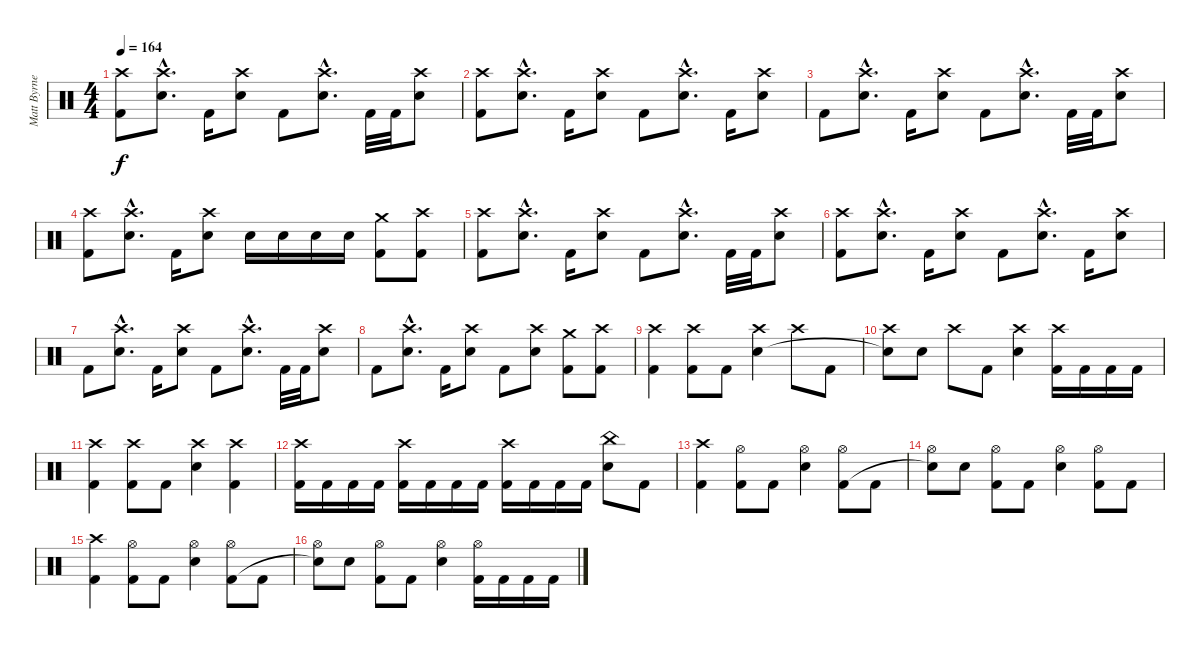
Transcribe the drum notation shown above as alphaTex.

\track ("Matt Byrne (Drums)" "Matt Byrne") {instrument percussion}
\staff {score}
\articulation defaults
\ts (4 4)
\tempo 164
\clef neutral
\ks c
("Crash high (hit)" "Kick (hit) 2").8{dy f} ("Crash high (hit)"{hac} "Snare (hit) 2"{hac}).8{d} "Kick (hit) 2".16 ("Crash high (hit)" "Snare (hit) 2").8 "Kick (hit) 2".8 ("Crash high (hit)"{hac} "Snare (hit) 2"{hac}).8{d} "Kick (hit) 2".32 "Kick (hit) 2".32 ("Crash high (hit)" "Snare (hit) 2").8 |
("Crash high (hit)" "Kick (hit) 2").8 ("Crash high (hit)"{hac} "Snare (hit) 2"{hac}).8{d} "Kick (hit) 2".16 ("Crash high (hit)" "Snare (hit) 2").8 "Kick (hit) 2".8 ("Crash high (hit)"{hac} "Snare (hit) 2"{hac}).8{d} "Kick (hit) 2".16 ("Crash high (hit)" "Snare (hit) 2").8 |
"Kick (hit) 2".8 ("Crash high (hit)"{hac} "Snare (hit) 2"{hac}).8{d} "Kick (hit) 2".16 ("Crash high (hit)" "Snare (hit) 2").8 "Kick (hit) 2".8 ("Crash high (hit)"{hac} "Snare (hit) 2"{hac}).8{d} "Kick (hit) 2".32 "Kick (hit) 2".32 ("Crash high (hit)" "Snare (hit) 2").8 |
("Crash high (hit)" "Kick (hit) 2").8 ("Crash high (hit)"{hac} "Snare (hit) 2"{hac}).8{d} "Kick (hit) 2".16 ("Crash high (hit)" "Snare (hit) 2").8 "Snare (hit) 2".16 "Snare (hit) 2".16 "Snare (hit) 2".16 "Snare (hit) 2".16 ("Crash medium (hit)" "Kick (hit) 2").8 ("Crash high (hit)" "Kick (hit) 2").8 |
("Crash high (hit)" "Kick (hit) 2").8 ("Crash high (hit)"{hac} "Snare (hit) 2"{hac}).8{d} "Kick (hit) 2".16 ("Crash high (hit)" "Snare (hit) 2").8 "Kick (hit) 2".8 ("Crash high (hit)"{hac} "Snare (hit) 2"{hac}).8{d} "Kick (hit) 2".32 "Kick (hit) 2".32 ("Crash high (hit)" "Snare (hit) 2").8 |
("Crash high (hit)" "Kick (hit) 2").8 ("Crash high (hit)"{hac} "Snare (hit) 2"{hac}).8{d} "Kick (hit) 2".16 ("Crash high (hit)" "Snare (hit) 2").8 "Kick (hit) 2".8 ("Crash high (hit)"{hac} "Snare (hit) 2"{hac}).8{d} "Kick (hit) 2".16 ("Crash high (hit)" "Snare (hit) 2").8 |
"Kick (hit) 2".8 ("Crash high (hit)"{hac} "Snare (hit) 2"{hac}).8{d} "Kick (hit) 2".16 ("Crash high (hit)" "Snare (hit) 2").8 "Kick (hit) 2".8 ("Crash high (hit)"{hac} "Snare (hit) 2"{hac}).8{d} "Kick (hit) 2".32 "Kick (hit) 2".32 ("Crash high (hit)" "Snare (hit) 2").8 |
"Kick (hit) 2".8 ("Crash high (hit)"{hac} "Snare (hit) 2"{hac}).8{d} "Kick (hit) 2".16 ("Crash high (hit)" "Snare (hit) 2").8 "Kick (hit) 2".8 ("Crash high (hit)" "Snare (hit) 2").8 ("Crash medium (hit)" "Kick (hit) 2").8 ("Crash high (hit)" "Kick (hit) 2").8 |
("Crash high (hit)" "Kick (hit) 2").4 ("Crash high (hit)" "Kick (hit) 2").8 "Kick (hit) 2".8 ("Crash high (hit)" "Electric Snare (hit)").4 "Crash high (hit)".8 "Kick (hit) 2".8 |
("Crash high (hit)" "Snare (hit)"{t}).8 "Electric Snare (hit)".8 "Crash high (hit)".8 "Kick (hit) 2".8 ("Crash high (hit)" "Electric Snare (hit)").4 ("Crash high (hit)" "Kick (hit) 2").16 "Kick (hit) 2".16 "Kick (hit) 2".16 "Kick (hit) 2".16 |
("Crash high (hit)" "Kick (hit) 2").4 ("Crash high (hit)" "Kick (hit) 2").8 "Kick (hit) 2".8 ("Crash high (hit)" "Electric Snare (hit)").4 ("Crash high (hit)" "Kick (hit) 2").4 |
("Crash high (hit)" "Kick (hit) 2").16 "Kick (hit) 2".16 "Kick (hit) 2".16 "Kick (hit) 2".16 ("Crash high (hit)" "Kick (hit) 2").16 "Kick (hit) 2".16 "Kick (hit) 2".16 "Kick (hit) 2".16 ("Crash high (hit)" "Kick (hit) 2").16 "Kick (hit) 2".16 "Kick (hit) 2".16 "Kick (hit) 2".16 ("China (hit)" "Electric Snare (hit)").8 "Kick (hit) 2".8 |
("Crash high (hit)" "Kick (hit) 2").4 ("Hi-Hat (open)" "Kick (hit) 2").8 "Kick (hit) 2".8 ("Hi-Hat (open)" "Electric Snare (hit)").4 ("Hi-Hat (open)" "Kick (hit) 2").8 "Kick (hit) 2".8 |
("Hi-Hat (open)" "Snare (hit)"{t}).8 "Electric Snare (hit)".8 ("Hi-Hat (open)" "Kick (hit) 2").8 "Kick (hit) 2".8 ("Hi-Hat (open)" "Electric Snare (hit)").4 ("Hi-Hat (open)" "Kick (hit) 2").8 "Kick (hit) 2".8 |
("Crash high (hit)" "Kick (hit) 2").4 ("Hi-Hat (open)" "Kick (hit) 2").8 "Kick (hit) 2".8 ("Hi-Hat (open)" "Electric Snare (hit)").4 ("Hi-Hat (open)" "Kick (hit) 2").8 "Kick (hit) 2".8 |
("Hi-Hat (open)" "Snare (hit)"{t}).8 "Electric Snare (hit)".8 ("Hi-Hat (open)" "Kick (hit) 2").8 "Kick (hit) 2".8 ("Hi-Hat (open)" "Electric Snare (hit)").4 ("Hi-Hat (open)" "Kick (hit) 2").16 "Kick (hit) 2".16 "Kick (hit) 2".16 "Kick (hit) 2".16
